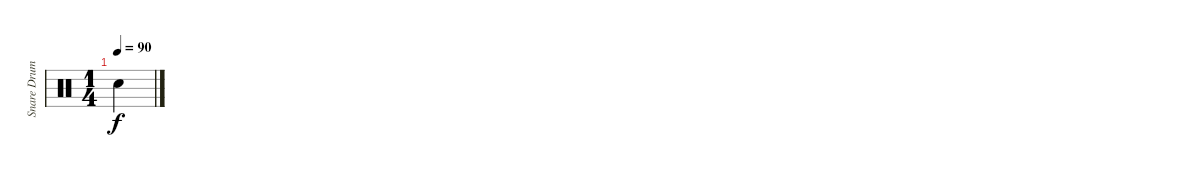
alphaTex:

\track ("Snare Drum" "Snare Drum") {instrument percussion}
\staff {score}
\articulation defaults
\ts (1 4)
\tempo 90
\clef neutral
\ks c "Snare (hit)"{t}.4{dy f}
